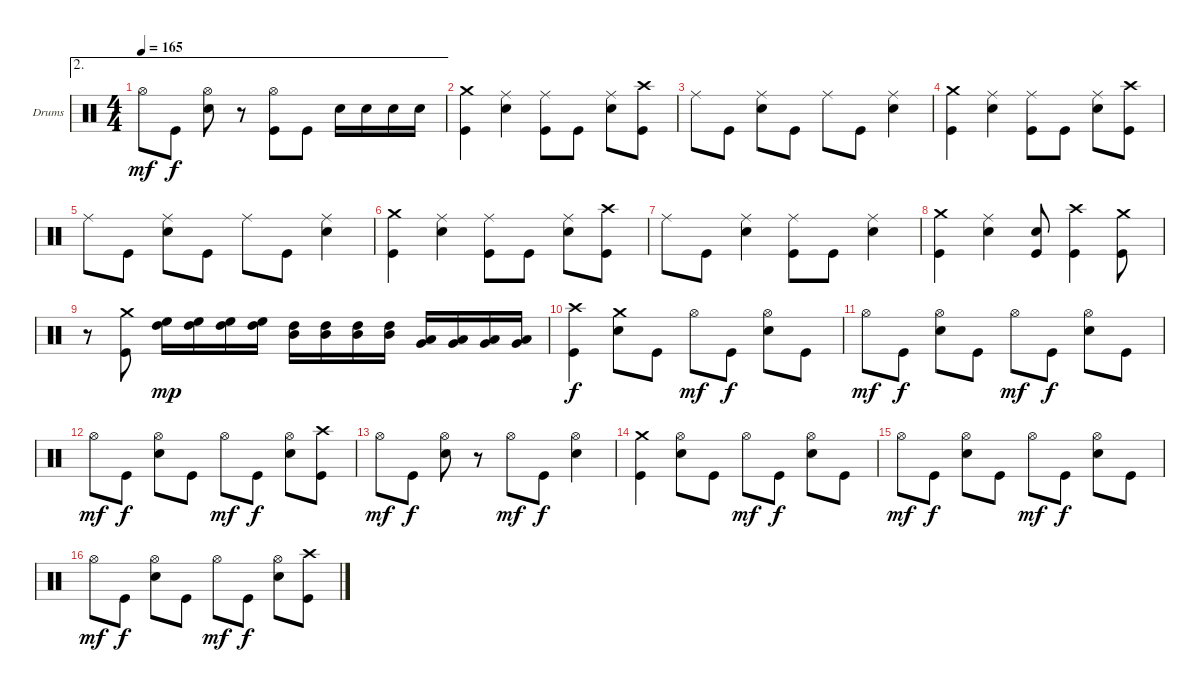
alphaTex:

\bracketExtendMode groupsimilarinstruments
\firstSystemTrackNameOrientation horizontal
\otherSystemsTrackNameOrientation horizontal
\track ("Drumkit" "Drums") {instrument percussion}
\staff {score}
\articulation defaults
\ae 2
\ts (4 4)
\tempo 165
\clef neutral
\ks c "Hi-Hat (open)".8{dy mf} "Kick (hit)".8{dy f}
("Snare (hit) 2" "Hi-Hat (open)").8 r.8 ("Kick (hit)" "Hi-Hat (open)").8 "Kick (hit)".8 "Snare (hit) 2".16 "Snare (hit) 2".16 "Snare (hit) 2".16 "Snare (hit) 2".16 |
("Kick (hit)" "Crash medium (hit)").4 ("Snare (hit) 2" "Ride (middle)").4 ("Kick (hit)" "Ride (middle)").8 "Kick (hit)".8 ("Snare (hit) 2" "Ride (middle)").8 ("Kick (hit)" "Crash high (hit)").8 |
"Ride (middle)".8 "Kick (hit)".8 ("Snare (hit) 2" "Ride (middle)").8 "Kick (hit)".8 "Ride (middle)".8 "Kick (hit)".8 ("Snare (hit) 2" "Ride (middle)").4 |
("Kick (hit)" "Crash medium (hit)").4 ("Snare (hit) 2" "Ride (middle)").4 ("Kick (hit)" "Ride (middle)").8 "Kick (hit)".8 ("Snare (hit) 2" "Ride (middle)").8 ("Kick (hit)" "Crash high (hit)").8 |
"Ride (middle)".8 "Kick (hit)".8 ("Snare (hit) 2" "Ride (middle)").8 "Kick (hit)".8 "Ride (middle)".8 "Kick (hit)".8 ("Snare (hit) 2" "Ride (middle)").4 |
("Kick (hit)" "Crash medium (hit)").4 ("Snare (hit) 2" "Ride (middle)").4 ("Kick (hit)" "Ride (middle)").8 "Kick (hit)".8 ("Snare (hit) 2" "Ride (middle)").8 ("Kick (hit)" "Crash high (hit)").8 |
"Ride (middle)".8 "Kick (hit)".8 ("Snare (hit) 2" "Ride (middle)").4 ("Kick (hit)" "Ride (middle)").8 "Kick (hit)".8 ("Snare (hit) 2" "Ride (middle)").4 |
("Kick (hit)" "Crash medium (hit)").4 ("Snare (hit) 2" "Ride (middle)").4 ("Kick (hit)" "Snare (hit) 2").8 ("Kick (hit)" "Crash high (hit)").4 ("Kick (hit)" "Crash medium (hit)").8 |
r.8 ("Kick (hit)" "Crash medium (hit)").8 ("High Floor Tom (hit)" "High Tom (hit)").16{dy mp} ("High Floor Tom (hit)" "High Tom (hit)").16 ("High Floor Tom (hit)" "High Tom (hit)").16 ("High Floor Tom (hit)" "High Tom (hit)").16 ("High Tom (hit)" "Mid Tom (hit)").16 ("High Tom (hit)" "Mid Tom (hit)").16 ("High Tom (hit)" "Mid Tom (hit)").16 ("High Tom (hit)" "Mid Tom (hit)").16 ("Low Tom (hit)" "Very Low Tom (hit)").16 ("Low Tom (hit)" "Very Low Tom (hit)").16 ("Low Tom (hit)" "Very Low Tom (hit)").16 ("Low Tom (hit)" "Very Low Tom (hit)").16 |
("Kick (hit)" "Crash high (hit)").4{dy f} ("Snare (hit) 2" "Crash medium (hit)").8 "Kick (hit)".8 "Hi-Hat (open)".8{dy mf} "Kick (hit)".8{dy f} ("Snare (hit) 2" "Hi-Hat (open)").8 "Kick (hit)".8 |
"Hi-Hat (open)".8{dy mf} "Kick (hit)".8{dy f} ("Snare (hit) 2" "Hi-Hat (open)").8 "Kick (hit)".8 "Hi-Hat (open)".8{dy mf} "Kick (hit)".8{dy f} ("Snare (hit) 2" "Hi-Hat (open)").8 "Kick (hit)".8 |
"Hi-Hat (open)".8{dy mf} "Kick (hit)".8{dy f} ("Snare (hit) 2" "Hi-Hat (open)").8 "Kick (hit)".8 "Hi-Hat (open)".8{dy mf} "Kick (hit)".8{dy f} ("Snare (hit) 2" "Hi-Hat (open)").8 ("Kick (hit)" "Crash high (hit)").8 |
"Hi-Hat (open)".8{dy mf} "Kick (hit)".8{dy f} ("Snare (hit) 2" "Hi-Hat (open)").8 r.8 "Hi-Hat (open)".8{dy mf} "Kick (hit)".8{dy f} ("Snare (hit) 2" "Hi-Hat (open)").4 |
("Kick (hit)" "Crash medium (hit)").4 ("Snare (hit) 2" "Hi-Hat (open)").8 "Kick (hit)".8 "Hi-Hat (open)".8{dy mf} "Kick (hit)".8{dy f} ("Snare (hit) 2" "Hi-Hat (open)").8 "Kick (hit)".8 |
"Hi-Hat (open)".8{dy mf} "Kick (hit)".8{dy f} ("Snare (hit) 2" "Hi-Hat (open)").8 "Kick (hit)".8 "Hi-Hat (open)".8{dy mf} "Kick (hit)".8{dy f} ("Snare (hit) 2" "Hi-Hat (open)").8 "Kick (hit)".8 |
"Hi-Hat (open)".8{dy mf} "Kick (hit)".8{dy f} ("Snare (hit) 2" "Hi-Hat (open)").8 "Kick (hit)".8 "Hi-Hat (open)".8{dy mf} "Kick (hit)".8{dy f} ("Snare (hit) 2" "Hi-Hat (open)").8 ("Kick (hit)" "Crash high (hit)").8
